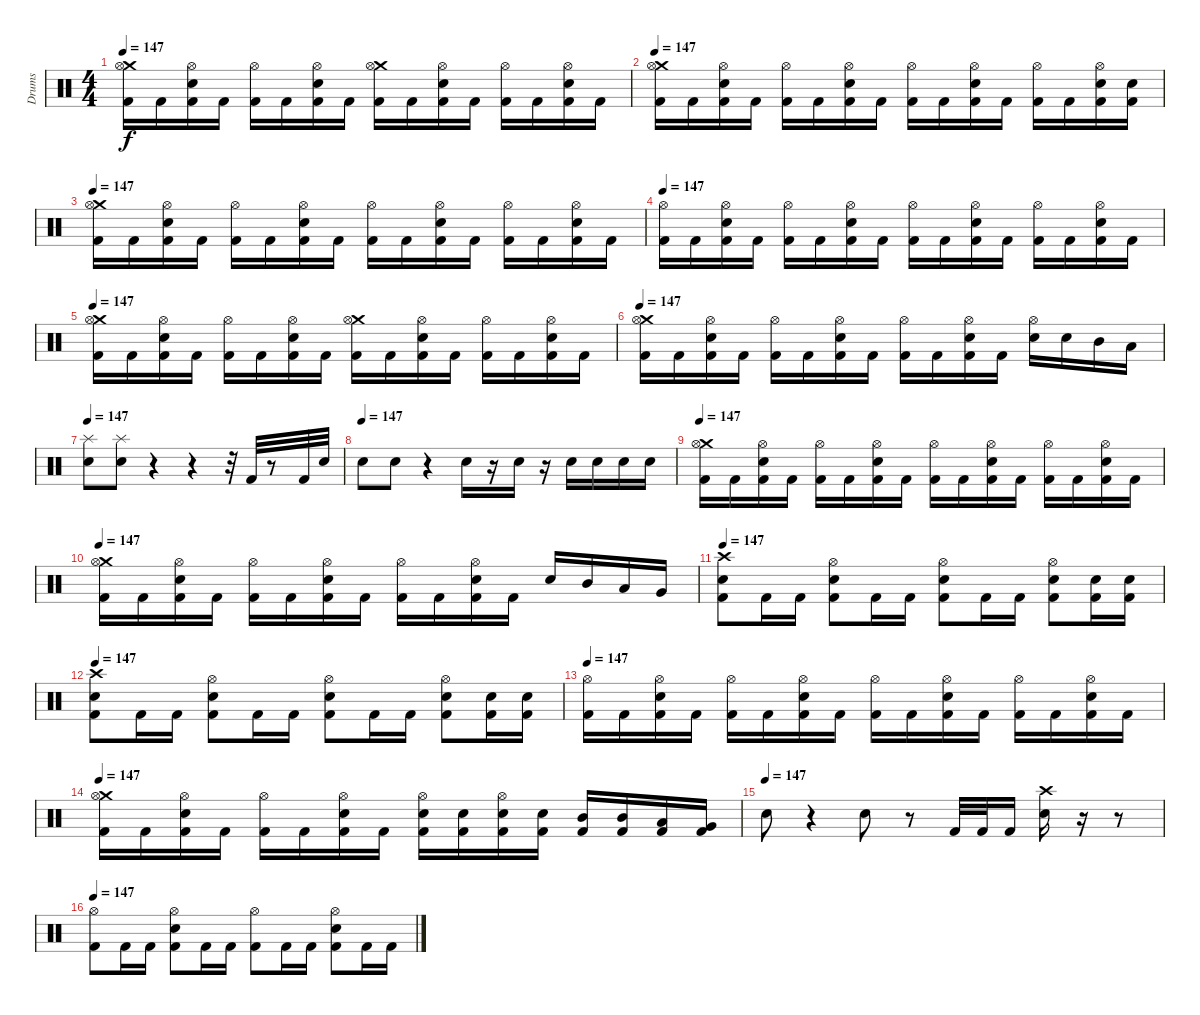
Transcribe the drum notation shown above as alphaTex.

\track ("Drums" "Drums") {instrument percussion}
\staff {score}
\articulation defaults
\ts (4 4)
\tempo 147
\clef neutral
\ks c
("Crash medium (hit)" "Hi-Hat (open)" "Kick (hit) 2").16{dy f} "Kick (hit) 2".16 ("Hi-Hat (open)" "Electric Snare (hit)" "Kick (hit) 2").16 "Kick (hit) 2".16 ("Hi-Hat (open)" "Kick (hit) 2").16 "Kick (hit) 2".16 ("Hi-Hat (open)" "Electric Snare (hit)" "Kick (hit) 2").16 "Kick (hit) 2".16 ("Crash medium (hit)" "Hi-Hat (open)" "Kick (hit) 2").16 "Kick (hit) 2".16 ("Hi-Hat (open)" "Electric Snare (hit)" "Kick (hit) 2").16 "Kick (hit) 2".16 ("Hi-Hat (open)" "Kick (hit) 2").16 "Kick (hit) 2".16 ("Hi-Hat (open)" "Electric Snare (hit)" "Kick (hit) 2").16 "Kick (hit) 2".16 |
\tempo 147
("Crash medium (hit)" "Hi-Hat (open)" "Kick (hit) 2").16 "Kick (hit) 2".16 ("Hi-Hat (open)" "Electric Snare (hit)" "Kick (hit) 2").16 "Kick (hit) 2".16 ("Hi-Hat (open)" "Kick (hit) 2").16 "Kick (hit) 2".16 ("Hi-Hat (open)" "Electric Snare (hit)" "Kick (hit) 2").16 "Kick (hit) 2".16 ("Hi-Hat (open)" "Kick (hit) 2").16 "Kick (hit) 2".16 ("Hi-Hat (open)" "Electric Snare (hit)" "Kick (hit) 2").16 "Kick (hit) 2".16 ("Hi-Hat (open)" "Kick (hit) 2").16 "Kick (hit) 2".16 ("Hi-Hat (open)" "Electric Snare (hit)" "Kick (hit) 2").16 ("Electric Snare (hit)" "Kick (hit) 2").16 |
\tempo 147
("Crash medium (hit)" "Hi-Hat (open)" "Kick (hit) 2").16 "Kick (hit) 2".16 ("Hi-Hat (open)" "Electric Snare (hit)" "Kick (hit) 2").16 "Kick (hit) 2".16 ("Hi-Hat (open)" "Kick (hit) 2").16 "Kick (hit) 2".16 ("Hi-Hat (open)" "Electric Snare (hit)" "Kick (hit) 2").16 "Kick (hit) 2".16 ("Hi-Hat (open)" "Kick (hit) 2").16 "Kick (hit) 2".16 ("Hi-Hat (open)" "Electric Snare (hit)" "Kick (hit) 2").16 "Kick (hit) 2".16 ("Hi-Hat (open)" "Kick (hit) 2").16 "Kick (hit) 2".16 ("Hi-Hat (open)" "Electric Snare (hit)" "Kick (hit) 2").16 "Kick (hit) 2".16 |
\tempo 147
("Hi-Hat (open)" "Kick (hit) 2").16 "Kick (hit) 2".16 ("Hi-Hat (open)" "Electric Snare (hit)" "Kick (hit) 2").16 "Kick (hit) 2".16 ("Hi-Hat (open)" "Kick (hit) 2").16 "Kick (hit) 2".16 ("Hi-Hat (open)" "Electric Snare (hit)" "Kick (hit) 2").16 "Kick (hit) 2".16 ("Hi-Hat (open)" "Kick (hit) 2").16 "Kick (hit) 2".16 ("Hi-Hat (open)" "Electric Snare (hit)" "Kick (hit) 2").16 "Kick (hit) 2".16 ("Hi-Hat (open)" "Kick (hit) 2").16 "Kick (hit) 2".16 ("Hi-Hat (open)" "Electric Snare (hit)" "Kick (hit) 2").16 "Kick (hit) 2".16 |
\tempo 147
("Crash medium (hit)" "Hi-Hat (open)" "Kick (hit) 2").16 "Kick (hit) 2".16 ("Hi-Hat (open)" "Electric Snare (hit)" "Kick (hit) 2").16 "Kick (hit) 2".16 ("Hi-Hat (open)" "Kick (hit) 2").16 "Kick (hit) 2".16 ("Hi-Hat (open)" "Electric Snare (hit)" "Kick (hit) 2").16 "Kick (hit) 2".16 ("Crash medium (hit)" "Hi-Hat (open)" "Kick (hit) 2").16 "Kick (hit) 2".16 ("Hi-Hat (open)" "Electric Snare (hit)" "Kick (hit) 2").16 "Kick (hit) 2".16 ("Hi-Hat (open)" "Kick (hit) 2").16 "Kick (hit) 2".16 ("Hi-Hat (open)" "Electric Snare (hit)" "Kick (hit) 2").16 "Kick (hit) 2".16 |
\tempo 147
("Crash medium (hit)" "Hi-Hat (open)" "Kick (hit) 2").16 "Kick (hit) 2".16 ("Hi-Hat (open)" "Electric Snare (hit)" "Kick (hit) 2").16 "Kick (hit) 2".16 ("Hi-Hat (open)" "Kick (hit) 2").16 "Kick (hit) 2".16 ("Hi-Hat (open)" "Electric Snare (hit)" "Kick (hit) 2").16 "Kick (hit) 2".16 ("Hi-Hat (open)" "Kick (hit) 2").16 "Kick (hit) 2".16 ("Hi-Hat (open)" "Electric Snare (hit)" "Kick (hit) 2").16 "Kick (hit) 2".16 ("Hi-Hat (open)" "Electric Snare (hit)").16 "Electric Snare (hit)".16 "Mid Tom (hit)".16 "Low Tom (hit)".16 |
\tempo 147
("Splash (hit)" "Electric Snare (hit)").8 ("Splash (hit)" "Electric Snare (hit)").8 r.4 r.4 r.32 "Kick (hit) 2".32 r.8 "Kick (hit) 2".32 "Snare (hit)".32 |
\tempo (147)
"Electric Snare (hit)".8 "Electric Snare (hit)".8 r.4 "Electric Snare (hit)".16 r.16 "Electric Snare (hit)".16 r.16 "Electric Snare (hit)".16 "Electric Snare (hit)".16 "Electric Snare (hit)".16 "Electric Snare (hit)".16 |
\tempo 147
("Crash medium (hit)" "Hi-Hat (open)" "Kick (hit) 2").16 "Kick (hit) 2".16 ("Hi-Hat (open)" "Electric Snare (hit)" "Kick (hit) 2").16 "Kick (hit) 2".16 ("Hi-Hat (open)" "Kick (hit) 2").16 "Kick (hit) 2".16 ("Hi-Hat (open)" "Electric Snare (hit)" "Kick (hit) 2").16 "Kick (hit) 2".16 ("Hi-Hat (open)" "Kick (hit) 2").16 "Kick (hit) 2".16 ("Hi-Hat (open)" "Electric Snare (hit)" "Kick (hit) 2").16 "Kick (hit) 2".16 ("Hi-Hat (open)" "Kick (hit) 2").16 "Kick (hit) 2".16 ("Hi-Hat (open)" "Electric Snare (hit)" "Kick (hit) 2").16 "Kick (hit) 2".16 |
\tempo 147
("Crash medium (hit)" "Hi-Hat (open)" "Kick (hit) 2").16 "Kick (hit) 2".16 ("Hi-Hat (open)" "Electric Snare (hit)" "Kick (hit) 2").16 "Kick (hit) 2".16 ("Hi-Hat (open)" "Kick (hit) 2").16 "Kick (hit) 2".16 ("Hi-Hat (open)" "Electric Snare (hit)" "Kick (hit) 2").16 "Kick (hit) 2".16 ("Hi-Hat (open)" "Kick (hit) 2").16 "Kick (hit) 2".16 ("Hi-Hat (open)" "Electric Snare (hit)" "Kick (hit) 2").16 "Kick (hit) 2".16 "Snare (hit) 2".16 "Mid Tom (hit)".16 "Low Tom (hit)".16 "Very Low Tom (hit)".16 |
\tempo 147
("Crash high (hit)" "Electric Snare (hit)" "Kick (hit) 2").8 "Kick (hit) 2".16 "Kick (hit) 2".16 ("Hi-Hat (open)" "Electric Snare (hit)" "Kick (hit) 2").8 "Kick (hit) 2".16 "Kick (hit) 2".16 ("Hi-Hat (open)" "Electric Snare (hit)" "Kick (hit) 2").8 "Kick (hit) 2".16 "Kick (hit) 2".16 ("Hi-Hat (open)" "Electric Snare (hit)" "Kick (hit) 2").8 ("Electric Snare (hit)" "Kick (hit) 2").16 ("Electric Snare (hit)" "Kick (hit) 2").16 |
\tempo 147
("Crash high (hit)" "Electric Snare (hit)" "Kick (hit) 2").8 "Kick (hit) 2".16 "Kick (hit) 2".16 ("Hi-Hat (open)" "Electric Snare (hit)" "Kick (hit) 2").8 "Kick (hit) 2".16 "Kick (hit) 2".16 ("Hi-Hat (open)" "Electric Snare (hit)" "Kick (hit) 2").8 "Kick (hit) 2".16 "Kick (hit) 2".16 ("Hi-Hat (open)" "Electric Snare (hit)" "Kick (hit) 2").8 ("Electric Snare (hit)" "Kick (hit) 2").16 ("Electric Snare (hit)" "Kick (hit) 2").16 |
\tempo 147
("Hi-Hat (open)" "Kick (hit) 2").16 "Kick (hit) 2".16 ("Hi-Hat (open)" "Electric Snare (hit)" "Kick (hit) 2").16 "Kick (hit) 2".16 ("Hi-Hat (open)" "Kick (hit) 2").16 "Kick (hit) 2".16 ("Hi-Hat (open)" "Electric Snare (hit)" "Kick (hit) 2").16 "Kick (hit) 2".16 ("Hi-Hat (open)" "Kick (hit) 2").16 "Kick (hit) 2".16 ("Hi-Hat (open)" "Electric Snare (hit)" "Kick (hit) 2").16 "Kick (hit) 2".16 ("Hi-Hat (open)" "Kick (hit) 2").16 "Kick (hit) 2".16 ("Hi-Hat (open)" "Electric Snare (hit)" "Kick (hit) 2").16 "Kick (hit) 2".16 |
\tempo 147
("Crash medium (hit)" "Hi-Hat (open)" "Kick (hit) 2").16 "Kick (hit) 2".16 ("Hi-Hat (open)" "Electric Snare (hit)" "Kick (hit) 2").16 "Kick (hit) 2".16 ("Hi-Hat (open)" "Kick (hit) 2").16 "Kick (hit) 2".16 ("Hi-Hat (open)" "Electric Snare (hit)" "Kick (hit) 2").16 "Kick (hit) 2".16 ("Hi-Hat (open)" "Electric Snare (hit)" "Kick (hit) 2").16 ("Electric Snare (hit)" "Kick (hit) 2").16 ("Hi-Hat (open)" "Electric Snare (hit)" "Kick (hit) 2").16 ("Electric Snare (hit)" "Kick (hit) 2").16 ("Mid Tom (hit)" "Kick (hit) 2").16 ("Mid Tom (hit)" "Kick (hit) 2").16 ("Low Tom (hit)" "Kick (hit) 2").16 ("Very Low Tom (hit)" "Kick (hit) 2").16 |
\tempo (147)
"Electric Snare (hit)".8 r.4 "Electric Snare (hit)".8 r.8 "Kick (hit) 2".32 "Kick (hit) 2".32 "Kick (hit) 2".16 ("Crash high (hit)" "Electric Snare (hit)").16 r.16 r.8 |
\tempo 147
("Hi-Hat (open)" "Kick (hit) 2").8 "Kick (hit) 2".16 "Kick (hit) 2".16 ("Hi-Hat (open)" "Electric Snare (hit)" "Kick (hit) 2").8 "Kick (hit) 2".16 "Kick (hit) 2".16 ("Hi-Hat (open)" "Kick (hit) 2").8 "Kick (hit) 2".16 "Kick (hit) 2".16 ("Hi-Hat (open)" "Electric Snare (hit)" "Kick (hit) 2").8 "Kick (hit) 2".16 "Kick (hit) 2".16
